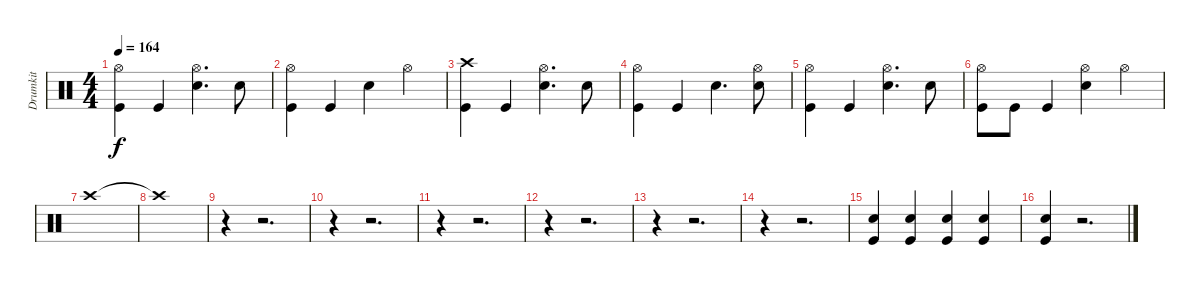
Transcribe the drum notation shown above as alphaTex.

\track ("Drumkit" "Drumkit") {instrument percussion}
\staff {score}
\articulation defaults
\ts (4 4)
\tempo 164
\clef neutral
\ks c
("Kick (hit)" "Hi-Hat (open)").4{dy f} "Kick (hit)".4 ("Snare (hit) 2" "Hi-Hat (open)").4{d} "Snare (hit) 2".8 |
("Kick (hit)" "Hi-Hat (open)").4 "Kick (hit)".4 "Snare (hit) 2".4 "Hi-Hat (open)".4 |
("Kick (hit)" "Crash high (hit)").4 "Kick (hit)".4 ("Snare (hit) 2" "Hi-Hat (open)").4{d} "Snare (hit) 2".8 |
("Kick (hit)" "Hi-Hat (open)").4 "Kick (hit)".4 "Snare (hit) 2".4{d} ("Snare (hit) 2" "Hi-Hat (open)").8 |
("Kick (hit)" "Hi-Hat (open)").4 "Kick (hit)".4 ("Snare (hit) 2" "Hi-Hat (open)").4{d} "Snare (hit) 2".8 |
("Kick (hit)" "Hi-Hat (open)").8 "Kick (hit)".8 "Kick (hit)".4 ("Snare (hit) 2" "Hi-Hat (open)").4 "Hi-Hat (open)".4 |
"Crash high (hit)".1 |
"Crash high (hit)"{t}.1 |
r.4 r.2{d} |
r.4 r.2{d} |
r.4 r.2{d} |
r.4 r.2{d} |
r.4 r.2{d} |
r.4 r.2{d} |
("Kick (hit)" "Snare (hit) 2").4 ("Kick (hit)" "Snare (hit) 2").4 ("Kick (hit)" "Snare (hit) 2").4 ("Kick (hit)" "Snare (hit) 2").4 |
("Kick (hit)" "Snare (hit) 2").4 r.2{d}
